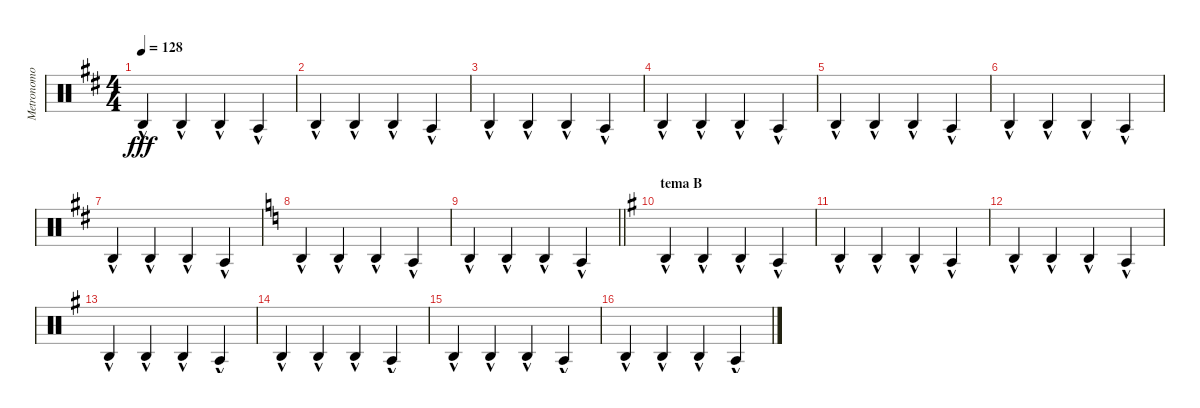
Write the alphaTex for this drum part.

\track ("Metronomo" "Metronomo") {mute instrument percussion}
\staff {score}
\articulation defaults
\ts (4 4)
\tempo 128
\clef neutral
\ks bminor "Agogo high (hit)"{hac}.4{dy fff} "Agogo high (hit)"{hac}.4 "Agogo high (hit)"{hac}.4 "Agogo tow (hit)"{hac}.4
|
"Agogo high (hit)"{hac}.4 "Agogo high (hit)"{hac}.4 "Agogo high (hit)"{hac}.4 "Agogo tow (hit)"{hac}.4 |
"Agogo high (hit)"{hac}.4 "Agogo high (hit)"{hac}.4 "Agogo high (hit)"{hac}.4 "Agogo tow (hit)"{hac}.4 |
"Agogo high (hit)"{hac}.4 "Agogo high (hit)"{hac}.4 "Agogo high (hit)"{hac}.4 "Agogo tow (hit)"{hac}.4 |
"Agogo high (hit)"{hac}.4 "Agogo high (hit)"{hac}.4 "Agogo high (hit)"{hac}.4 "Agogo tow (hit)"{hac}.4 |
"Agogo high (hit)"{hac}.4 "Agogo high (hit)"{hac}.4 "Agogo high (hit)"{hac}.4 "Agogo tow (hit)"{hac}.4 |
"Agogo high (hit)"{hac}.4 "Agogo high (hit)"{hac}.4 "Agogo high (hit)"{hac}.4 "Agogo tow (hit)"{hac}.4 |
\ks c "Agogo high (hit)"{hac}.4 "Agogo high (hit)"{hac}.4 "Agogo high (hit)"{hac}.4 "Agogo tow (hit)"{hac}.4
|
\barLineRight lightlight "Agogo high (hit)"{hac}.4 "Agogo high (hit)"{hac}.4 "Agogo high (hit)"{hac}.4 "Agogo tow (hit)"{hac}.4
|
\section ("" "tema B")
\ks eminor "Agogo high (hit)"{hac}.4 "Agogo high (hit)"{hac}.4 "Agogo high (hit)"{hac}.4 "Agogo tow (hit)"{hac}.4
|
"Agogo high (hit)"{hac}.4 "Agogo high (hit)"{hac}.4 "Agogo high (hit)"{hac}.4 "Agogo tow (hit)"{hac}.4 |
"Agogo high (hit)"{hac}.4 "Agogo high (hit)"{hac}.4 "Agogo high (hit)"{hac}.4 "Agogo tow (hit)"{hac}.4 |
"Agogo high (hit)"{hac}.4 "Agogo high (hit)"{hac}.4 "Agogo high (hit)"{hac}.4 "Agogo tow (hit)"{hac}.4 |
"Agogo high (hit)"{hac}.4 "Agogo high (hit)"{hac}.4 "Agogo high (hit)"{hac}.4 "Agogo tow (hit)"{hac}.4 |
"Agogo high (hit)"{hac}.4 "Agogo high (hit)"{hac}.4 "Agogo high (hit)"{hac}.4 "Agogo tow (hit)"{hac}.4 |
"Agogo high (hit)"{hac}.4 "Agogo high (hit)"{hac}.4 "Agogo high (hit)"{hac}.4 "Agogo tow (hit)"{hac}.4
